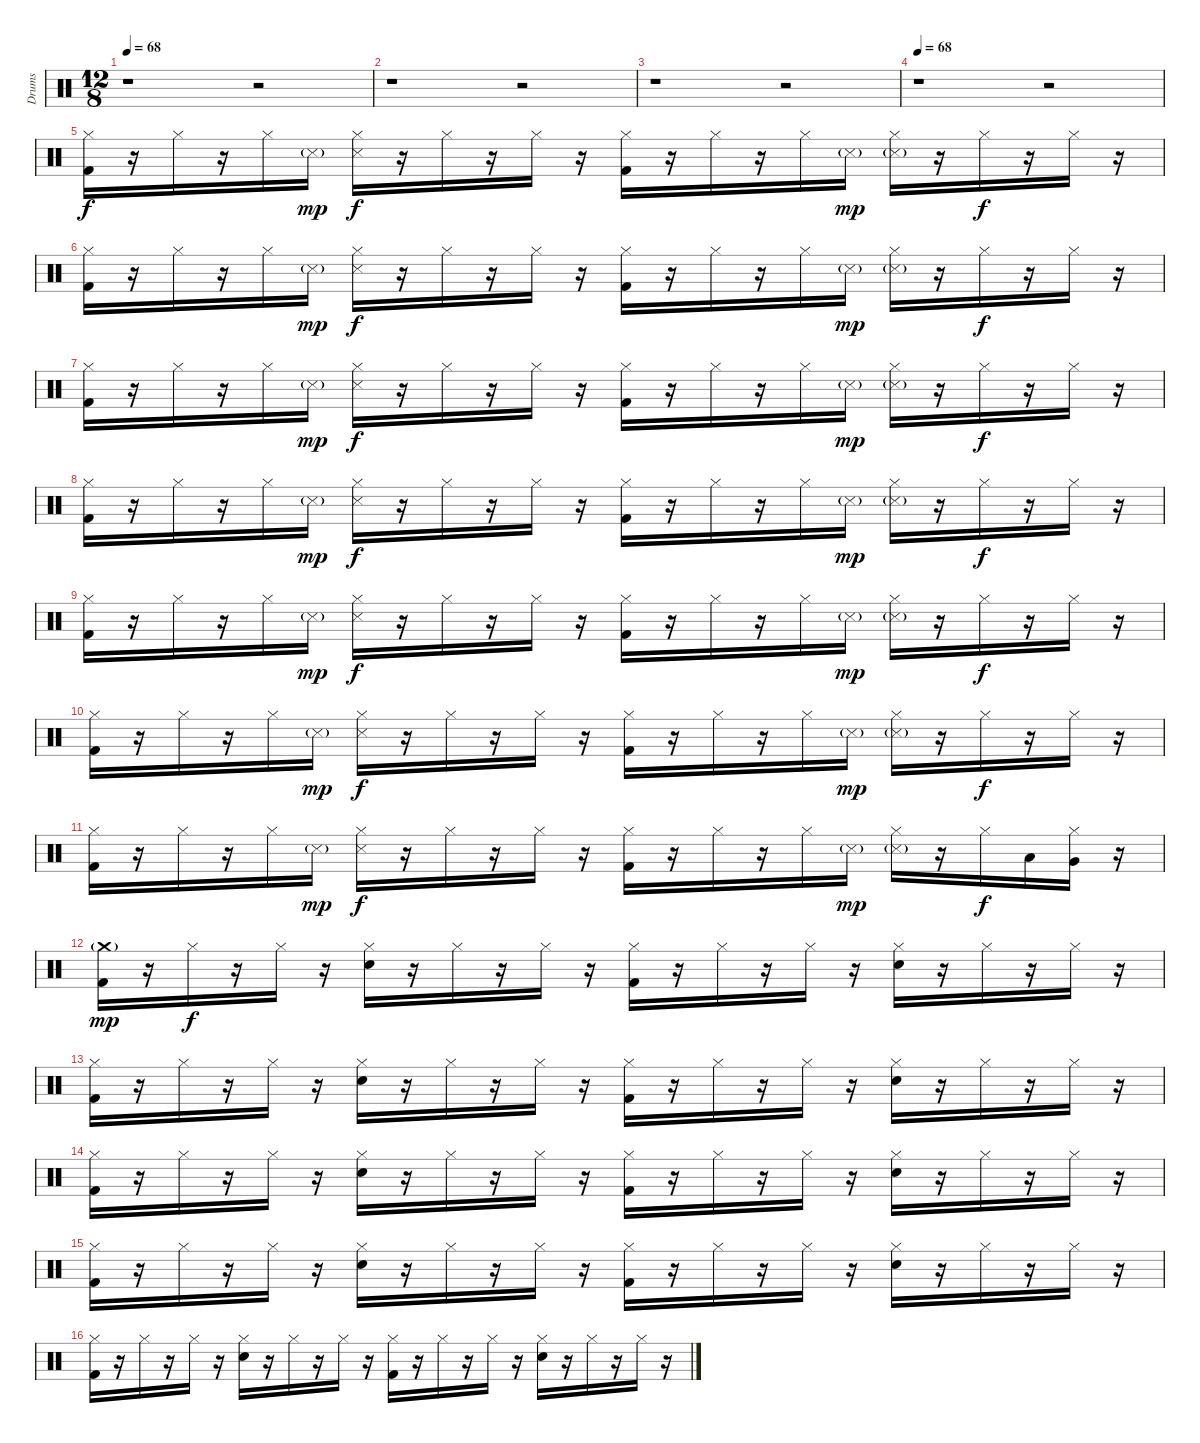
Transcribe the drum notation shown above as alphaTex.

\track ("Drums" "Drums") {instrument percussion}
\staff {score}
\articulation defaults
\ts (12 8)
\tempo 68
\tempo 120
\tempo 68
\clef neutral
\ks c
r.1{dy f} r.2 |
r.1 r.2 |
r.1 r.2 |
\tempo 68
r.1 r.2 |
("Hi-Hat (closed)" "Kick (hit) 2").16 r.16 "Hi-Hat (closed)".16 r.16 "Hi-Hat (closed)".16 "Snare (side stick) 3"{g}.16{dy mp} ("Hi-Hat (closed)" "Snare (side stick) 3").16{dy f} r.16 "Hi-Hat (closed)".16 r.16 "Hi-Hat (closed)".16 r.16 ("Hi-Hat (closed)" "Kick (hit) 2").16 r.16 "Hi-Hat (closed)".16 r.16 "Hi-Hat (closed)".16 "Snare (side stick) 3"{g}.16{dy mp} ("Hi-Hat (closed)" "Snare (side stick) 3"{g}).16 r.16 "Hi-Hat (closed)".16{dy f} r.16 "Hi-Hat (closed)".16 r.16 |
("Hi-Hat (closed)" "Kick (hit) 2").16 r.16 "Hi-Hat (closed)".16 r.16 "Hi-Hat (closed)".16 "Snare (side stick) 3"{g}.16{dy mp} ("Hi-Hat (closed)" "Snare (side stick) 3").16{dy f} r.16 "Hi-Hat (closed)".16 r.16 "Hi-Hat (closed)".16 r.16 ("Hi-Hat (closed)" "Kick (hit) 2").16 r.16 "Hi-Hat (closed)".16 r.16 "Hi-Hat (closed)".16 "Snare (side stick) 3"{g}.16{dy mp} ("Hi-Hat (closed)" "Snare (side stick) 3"{g}).16 r.16 "Hi-Hat (closed)".16{dy f} r.16 "Hi-Hat (closed)".16 r.16 |
("Hi-Hat (closed)" "Kick (hit) 2").16 r.16 "Hi-Hat (closed)".16 r.16 "Hi-Hat (closed)".16 "Snare (side stick) 3"{g}.16{dy mp} ("Hi-Hat (closed)" "Snare (side stick) 3").16{dy f} r.16 "Hi-Hat (closed)".16 r.16 "Hi-Hat (closed)".16 r.16 ("Hi-Hat (closed)" "Kick (hit) 2").16 r.16 "Hi-Hat (closed)".16 r.16 "Hi-Hat (closed)".16 "Snare (side stick) 3"{g}.16{dy mp} ("Hi-Hat (closed)" "Snare (side stick) 3"{g}).16 r.16 "Hi-Hat (closed)".16{dy f} r.16 "Hi-Hat (closed)".16 r.16 |
("Hi-Hat (closed)" "Kick (hit) 2").16 r.16 "Hi-Hat (closed)".16 r.16 "Hi-Hat (closed)".16 "Snare (side stick) 3"{g}.16{dy mp} ("Hi-Hat (closed)" "Snare (side stick) 3").16{dy f} r.16 "Hi-Hat (closed)".16 r.16 "Hi-Hat (closed)".16 r.16 ("Hi-Hat (closed)" "Kick (hit) 2").16 r.16 "Hi-Hat (closed)".16 r.16 "Hi-Hat (closed)".16 "Snare (side stick) 3"{g}.16{dy mp} ("Hi-Hat (closed)" "Snare (side stick) 3"{g}).16 r.16 "Hi-Hat (closed)".16{dy f} r.16 "Hi-Hat (closed)".16 r.16 |
("Hi-Hat (closed)" "Kick (hit) 2").16 r.16 "Hi-Hat (closed)".16 r.16 "Hi-Hat (closed)".16 "Snare (side stick) 3"{g}.16{dy mp} ("Hi-Hat (closed)" "Snare (side stick) 3").16{dy f} r.16 "Hi-Hat (closed)".16 r.16 "Hi-Hat (closed)".16 r.16 ("Hi-Hat (closed)" "Kick (hit) 2").16 r.16 "Hi-Hat (closed)".16 r.16 "Hi-Hat (closed)".16 "Snare (side stick) 3"{g}.16{dy mp} ("Hi-Hat (closed)" "Snare (side stick) 3"{g}).16 r.16 "Hi-Hat (closed)".16{dy f} r.16 "Hi-Hat (closed)".16 r.16 |
("Hi-Hat (closed)" "Kick (hit) 2").16 r.16 "Hi-Hat (closed)".16 r.16 "Hi-Hat (closed)".16 "Snare (side stick) 3"{g}.16{dy mp} ("Hi-Hat (closed)" "Snare (side stick) 3").16{dy f} r.16 "Hi-Hat (closed)".16 r.16 "Hi-Hat (closed)".16 r.16 ("Hi-Hat (closed)" "Kick (hit) 2").16 r.16 "Hi-Hat (closed)".16 r.16 "Hi-Hat (closed)".16 "Snare (side stick) 3"{g}.16{dy mp} ("Hi-Hat (closed)" "Snare (side stick) 3"{g}).16 r.16 "Hi-Hat (closed)".16{dy f} r.16 "Hi-Hat (closed)".16 r.16 |
("Hi-Hat (closed)" "Kick (hit) 2").16 r.16 "Hi-Hat (closed)".16 r.16 "Hi-Hat (closed)".16 "Snare (side stick) 3"{g}.16{dy mp} ("Hi-Hat (closed)" "Snare (side stick) 3").16{dy f} r.16 "Hi-Hat (closed)".16 r.16 "Hi-Hat (closed)".16 r.16 ("Hi-Hat (closed)" "Kick (hit) 2").16 r.16 "Hi-Hat (closed)".16 r.16 "Hi-Hat (closed)".16 "Snare (side stick) 3"{g}.16{dy mp} ("Hi-Hat (closed)" "Snare (side stick) 3"{g}).16 r.16 "Hi-Hat (closed)".16{dy f} "Low Tom (hit)".16 ("Hi-Hat (closed)" "Very Low Tom (hit)").16 r.16 |
("Crash medium (hit)"{g} "Kick (hit) 2").16{dy mp} r.16 "Hi-Hat (closed)".16{dy f} r.16 "Hi-Hat (closed)".16 r.16 ("Hi-Hat (closed)" "Snare (hit) 2").16 r.16 "Hi-Hat (closed)".16 r.16 "Hi-Hat (closed)".16 r.16 ("Hi-Hat (closed)" "Kick (hit) 2").16 r.16 "Hi-Hat (closed)".16 r.16 "Hi-Hat (closed)".16 r.16 ("Hi-Hat (closed)" "Snare (hit) 2").16 r.16 "Hi-Hat (closed)".16 r.16 "Hi-Hat (closed)".16 r.16 |
("Hi-Hat (closed)" "Kick (hit) 2").16 r.16 "Hi-Hat (closed)".16 r.16 "Hi-Hat (closed)".16 r.16 ("Hi-Hat (closed)" "Snare (hit) 2").16 r.16 "Hi-Hat (closed)".16 r.16 "Hi-Hat (closed)".16 r.16 ("Hi-Hat (closed)" "Kick (hit) 2").16 r.16 "Hi-Hat (closed)".16 r.16 "Hi-Hat (closed)".16 r.16 ("Hi-Hat (closed)" "Snare (hit) 2").16 r.16 "Hi-Hat (closed)".16 r.16 "Hi-Hat (closed)".16 r.16 |
("Hi-Hat (closed)" "Kick (hit) 2").16 r.16 "Hi-Hat (closed)".16 r.16 "Hi-Hat (closed)".16 r.16 ("Hi-Hat (closed)" "Snare (hit) 2").16 r.16 "Hi-Hat (closed)".16 r.16 "Hi-Hat (closed)".16 r.16 ("Hi-Hat (closed)" "Kick (hit) 2").16 r.16 "Hi-Hat (closed)".16 r.16 "Hi-Hat (closed)".16 r.16 ("Hi-Hat (closed)" "Snare (hit) 2").16 r.16 "Hi-Hat (closed)".16 r.16 "Hi-Hat (closed)".16 r.16 |
("Hi-Hat (closed)" "Kick (hit) 2").16 r.16 "Hi-Hat (closed)".16 r.16 "Hi-Hat (closed)".16 r.16 ("Hi-Hat (closed)" "Snare (hit) 2").16 r.16 "Hi-Hat (closed)".16 r.16 "Hi-Hat (closed)".16 r.16 ("Hi-Hat (closed)" "Kick (hit) 2").16 r.16 "Hi-Hat (closed)".16 r.16 "Hi-Hat (closed)".16 r.16 ("Hi-Hat (closed)" "Snare (hit) 2").16 r.16 "Hi-Hat (closed)".16 r.16 "Hi-Hat (closed)".16 r.16 |
("Hi-Hat (closed)" "Kick (hit) 2").16 r.16 "Hi-Hat (closed)".16 r.16 "Hi-Hat (closed)".16 r.16 ("Hi-Hat (closed)" "Snare (hit) 2").16 r.16 "Hi-Hat (closed)".16 r.16 "Hi-Hat (closed)".16 r.16 ("Hi-Hat (closed)" "Kick (hit) 2").16 r.16 "Hi-Hat (closed)".16 r.16 "Hi-Hat (closed)".16 r.16 ("Hi-Hat (closed)" "Snare (hit) 2").16 r.16 "Hi-Hat (closed)".16 r.16 "Hi-Hat (closed)".16 r.16
